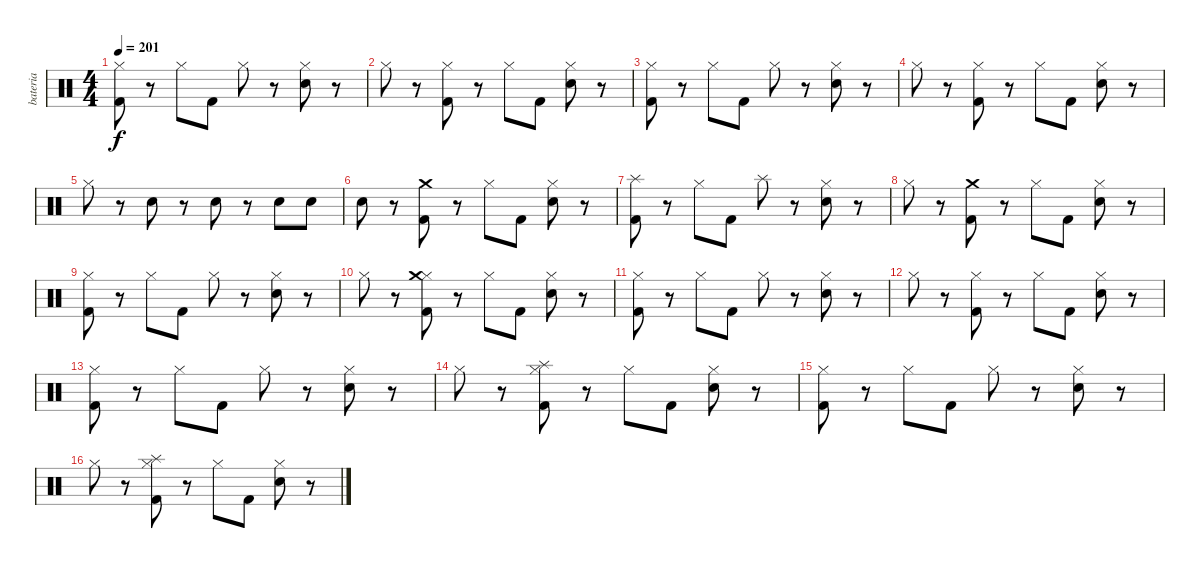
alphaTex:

\track ("bateria" "bateria") {solo instrument percussion}
\staff {score}
\articulation defaults
\ts (4 4)
\tempo 201
\clef neutral
\ks c
("Hi-Hat (closed)" "Kick (hit) 2").8{dy f} r.8 "Hi-Hat (closed)".8 "Kick (hit) 2".8 "Hi-Hat (closed)".8 r.8 ("Hi-Hat (closed)" "Electric Snare (hit)").8 r.8 |
"Hi-Hat (closed)".8 r.8 ("Hi-Hat (closed)" "Kick (hit) 2").8 r.8 "Hi-Hat (closed)".8 "Kick (hit) 2".8 ("Hi-Hat (closed)" "Electric Snare (hit)").8 r.8 |
("Hi-Hat (closed)" "Kick (hit) 2").8 r.8 "Hi-Hat (closed)".8 "Kick (hit) 2".8 "Hi-Hat (closed)".8 r.8 ("Hi-Hat (closed)" "Electric Snare (hit)").8 r.8 |
"Hi-Hat (closed)".8 r.8 ("Hi-Hat (closed)" "Kick (hit) 2").8 r.8 "Hi-Hat (closed)".8 "Kick (hit) 2".8 ("Hi-Hat (closed)" "Electric Snare (hit)").8 r.8 |
"Hi-Hat (closed)".8 r.8 "Electric Snare (hit)".8 r.8 "Electric Snare (hit)".8 r.8 "Electric Snare (hit)".8 "Electric Snare (hit)".8 |
"Snare (hit) 2".8 r.8 ("Crash medium (hit)" "Kick (hit) 2").8 r.8 "Hi-Hat (closed)".8 "Kick (hit) 2".8 ("Hi-Hat (closed)" "Electric Snare (hit)").8 r.8 |
("Splash (hit)" "Kick (hit) 2").8 r.8 "Hi-Hat (closed)".8 "Kick (hit) 2".8 "Splash (hit)".8 r.8 ("Hi-Hat (closed)" "Electric Snare (hit)").8 r.8 |
"Hi-Hat (closed)".8 r.8 ("Crash medium (hit)" "Kick (hit) 2").8 r.8 "Hi-Hat (closed)".8 "Kick (hit) 2".8 ("Hi-Hat (closed)" "Electric Snare (hit)").8 r.8 |
("Hi-Hat (closed)" "Kick (hit) 2").8 r.8 "Hi-Hat (closed)".8 "Kick (hit) 2".8 "Hi-Hat (closed)".8 r.8 ("Hi-Hat (closed)" "Electric Snare (hit)").8 r.8 |
"Hi-Hat (closed)".8 r.8 ("Hi-Hat (closed)" "Crash medium (hit)" "Kick (hit) 2").8 r.8 "Hi-Hat (closed)".8 "Kick (hit) 2".8 ("Hi-Hat (closed)" "Electric Snare (hit)").8 r.8 |
("Hi-Hat (closed)" "Kick (hit) 2").8 r.8 "Hi-Hat (closed)".8 "Kick (hit) 2".8 "Hi-Hat (closed)".8 r.8 ("Hi-Hat (closed)" "Electric Snare (hit)").8 r.8 |
"Hi-Hat (closed)".8 r.8 ("Hi-Hat (closed)" "Kick (hit) 2").8 r.8 "Hi-Hat (closed)".8 "Kick (hit) 2".8 ("Hi-Hat (closed)" "Electric Snare (hit)").8 r.8 |
("Hi-Hat (closed)" "Kick (hit) 2").8 r.8 "Hi-Hat (closed)".8 "Kick (hit) 2".8 "Hi-Hat (closed)".8 r.8 ("Hi-Hat (closed)" "Electric Snare (hit)").8 r.8 |
"Hi-Hat (closed)".8 r.8 ("Hi-Hat (closed)" "Splash (hit)" "Kick (hit) 2").8 r.8 "Hi-Hat (closed)".8 "Kick (hit) 2".8 ("Hi-Hat (closed)" "Electric Snare (hit)").8 r.8 |
("Hi-Hat (closed)" "Kick (hit) 2").8 r.8 "Hi-Hat (closed)".8 "Kick (hit) 2".8 "Hi-Hat (closed)".8 r.8 ("Hi-Hat (closed)" "Electric Snare (hit)").8 r.8 |
"Hi-Hat (closed)".8 r.8 ("Hi-Hat (closed)" "Splash (hit)" "Kick (hit) 2").8 r.8 "Hi-Hat (closed)".8 "Kick (hit) 2".8 ("Hi-Hat (closed)" "Electric Snare (hit)").8 r.8
